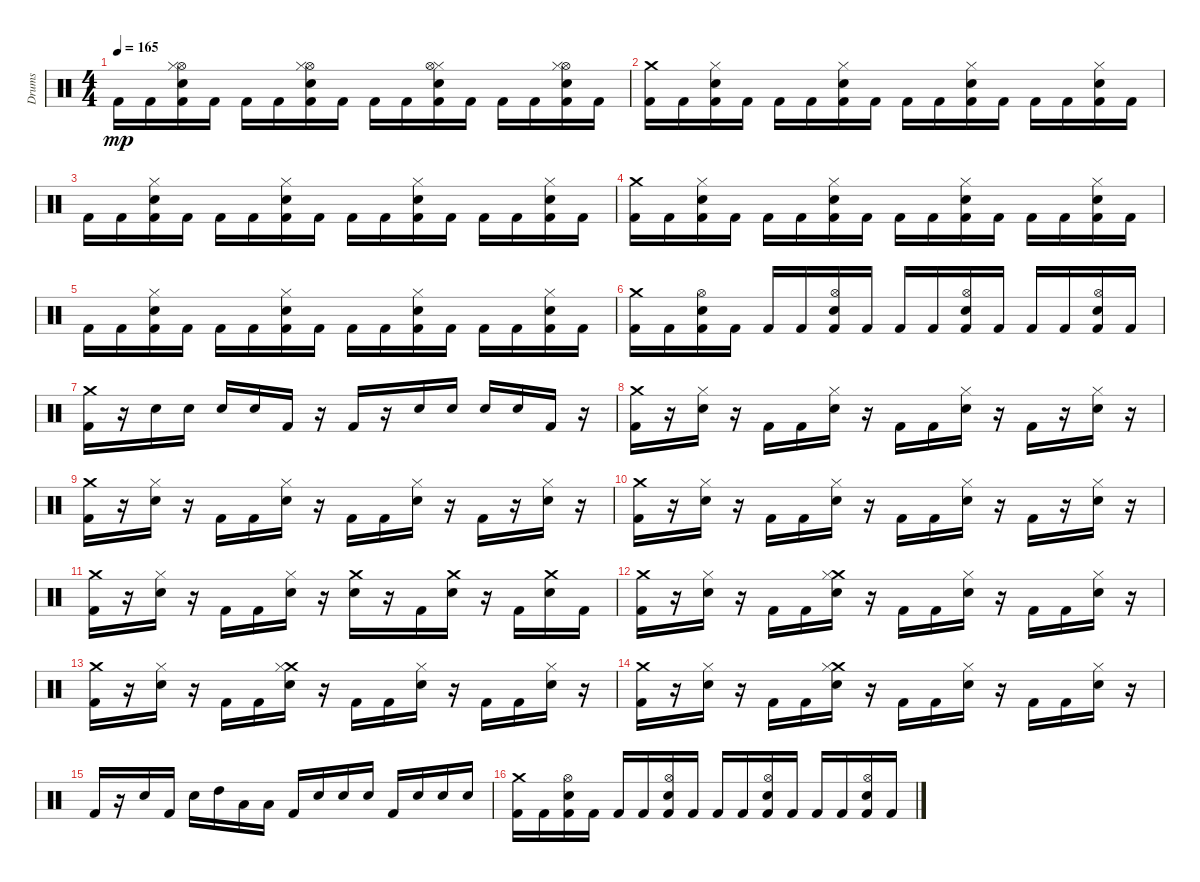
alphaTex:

\track ("Drums" "Drums") {instrument percussion}
\staff {score}
\articulation defaults
\ts (4 4)
\tempo 165
\clef neutral
\ks c "Kick (hit) 2".16{dy mp} "Kick (hit) 2".16
("Hi-Hat (open)" "Electric Snare (hit)" "Kick (hit) 2" "Hi-Hat (closed)").16 "Kick (hit) 2".16 "Kick (hit) 2".16 "Kick (hit) 2".16 ("Electric Snare (hit)" "Kick (hit) 2" "Hi-Hat (open)" "Hi-Hat (closed)").16 "Kick (hit) 2".16 "Kick (hit) 2".16 "Kick (hit) 2".16 ("Kick (hit) 2" "Electric Snare (hit)" "Hi-Hat (closed)" "Hi-Hat (open)").16 "Kick (hit) 2".16 "Kick (hit) 2".16 "Kick (hit) 2".16 ("Hi-Hat (open)" "Kick (hit) 2" "Electric Snare (hit)" "Hi-Hat (closed)").16 "Kick (hit) 2".16 |
("Crash medium (hit)" "Kick (hit) 2").16 "Kick (hit) 2".16 ("Kick (hit) 2" "Hi-Hat (closed)" "Electric Snare (hit)").16 "Kick (hit) 2".16 "Kick (hit) 2".16 "Kick (hit) 2".16 ("Kick (hit) 2" "Electric Snare (hit)" "Hi-Hat (closed)").16 "Kick (hit) 2".16 "Kick (hit) 2".16 "Kick (hit) 2".16 ("Hi-Hat (closed)" "Kick (hit) 2" "Electric Snare (hit)").16 "Kick (hit) 2".16 "Kick (hit) 2".16 "Kick (hit) 2".16 ("Hi-Hat (closed)" "Electric Snare (hit)" "Kick (hit) 2").16 "Kick (hit) 2".16 |
"Kick (hit) 2".16 "Kick (hit) 2".16 ("Hi-Hat (closed)" "Kick (hit) 2" "Electric Snare (hit)").16 "Kick (hit) 2".16 "Kick (hit) 2".16 "Kick (hit) 2".16 ("Kick (hit) 2" "Hi-Hat (closed)" "Electric Snare (hit)").16 "Kick (hit) 2".16 "Kick (hit) 2".16 "Kick (hit) 2".16 ("Hi-Hat (closed)" "Electric Snare (hit)" "Kick (hit) 2").16 "Kick (hit) 2".16 "Kick (hit) 2".16 "Kick (hit) 2".16 ("Electric Snare (hit)" "Kick (hit) 2" "Hi-Hat (closed)").16 "Kick (hit) 2".16 |
("Kick (hit) 2" "Crash medium (hit)").16 "Kick (hit) 2".16 ("Electric Snare (hit)" "Kick (hit) 2" "Hi-Hat (closed)").16 "Kick (hit) 2".16 "Kick (hit) 2".16 "Kick (hit) 2".16 ("Electric Snare (hit)" "Hi-Hat (closed)" "Kick (hit) 2").16 "Kick (hit) 2".16 "Kick (hit) 2".16 "Kick (hit) 2".16 ("Electric Snare (hit)" "Hi-Hat (closed)" "Kick (hit) 2").16 "Kick (hit) 2".16 "Kick (hit) 2".16 "Kick (hit) 2".16 ("Kick (hit) 2" "Electric Snare (hit)" "Hi-Hat (closed)").16 "Kick (hit) 2".16 |
"Kick (hit) 2".16 "Kick (hit) 2".16 ("Electric Snare (hit)" "Hi-Hat (closed)" "Kick (hit) 2").16 "Kick (hit) 2".16 "Kick (hit) 2".16 "Kick (hit) 2".16 ("Hi-Hat (closed)" "Electric Snare (hit)" "Kick (hit) 2").16 "Kick (hit) 2".16 "Kick (hit) 2".16 "Kick (hit) 2".16 ("Hi-Hat (closed)" "Kick (hit) 2" "Electric Snare (hit)").16 "Kick (hit) 2".16 "Kick (hit) 2".16 "Kick (hit) 2".16 ("Kick (hit) 2" "Hi-Hat (closed)" "Electric Snare (hit)").16 "Kick (hit) 2".16 |
("Kick (hit) 2" "Crash medium (hit)").16 "Kick (hit) 2".16 ("Kick (hit) 2" "Hi-Hat (open)" "Electric Snare (hit)").16 "Kick (hit) 2".16 "Kick (hit) 2".16 "Kick (hit) 2".16 ("Electric Snare (hit)" "Kick (hit) 2" "Hi-Hat (open)").16 "Kick (hit) 2".16 "Kick (hit) 2".16 "Kick (hit) 2".16 ("Kick (hit) 2" "Electric Snare (hit)" "Hi-Hat (open)").16 "Kick (hit) 2".16 "Kick (hit) 2".16 "Kick (hit) 2".16 ("Electric Snare (hit)" "Hi-Hat (open)" "Kick (hit) 2").16 "Kick (hit) 2".16 |
("Crash medium (hit)" "Kick (hit) 2").16 r.16 "Electric Snare (hit)".16 "Electric Snare (hit)".16 "Electric Snare (hit)".16 "Electric Snare (hit)".16 "Kick (hit) 2".16 r.16 "Kick (hit) 2".16 r.16 "Electric Snare (hit)".16 "Electric Snare (hit)".16 "Electric Snare (hit)".16 "Electric Snare (hit)".16 "Kick (hit) 2".16 r.16 |
("Crash medium (hit)" "Kick (hit) 2").16 r.16 ("Hi-Hat (closed)" "Electric Snare (hit)").16 r.16 "Kick (hit) 2".16 "Kick (hit) 2".16 ("Electric Snare (hit)" "Hi-Hat (closed)").16 r.16 "Kick (hit) 2".16 "Kick (hit) 2".16 ("Electric Snare (hit)" "Hi-Hat (closed)").16 r.16 "Kick (hit) 2".16 r.16 ("Hi-Hat (closed)" "Electric Snare (hit)").16 r.16 |
("Kick (hit) 2" "Crash medium (hit)").16 r.16 ("Hi-Hat (closed)" "Electric Snare (hit)").16 r.16 "Kick (hit) 2".16 "Kick (hit) 2".16 ("Electric Snare (hit)" "Hi-Hat (closed)").16 r.16 "Kick (hit) 2".16 "Kick (hit) 2".16 ("Hi-Hat (closed)" "Electric Snare (hit)").16 r.16 "Kick (hit) 2".16 r.16 ("Electric Snare (hit)" "Hi-Hat (closed)").16 r.16 |
("Kick (hit) 2" "Crash medium (hit)").16 r.16 ("Hi-Hat (closed)" "Electric Snare (hit)").16 r.16 "Kick (hit) 2".16 "Kick (hit) 2".16 ("Hi-Hat (closed)" "Electric Snare (hit)").16 r.16 "Kick (hit) 2".16 "Kick (hit) 2".16 ("Hi-Hat (closed)" "Electric Snare (hit)").16 r.16 "Kick (hit) 2".16 r.16 ("Electric Snare (hit)" "Hi-Hat (closed)").16 r.16 |
("Crash medium (hit)" "Kick (hit) 2").16 r.16 ("Electric Snare (hit)" "Hi-Hat (closed)").16 r.16 "Kick (hit) 2".16 "Kick (hit) 2".16 ("Hi-Hat (closed)" "Electric Snare (hit)").16 r.16 ("Electric Snare (hit)" "Crash medium (hit)").16 r.16 "Kick (hit) 2".16 ("Crash medium (hit)" "Electric Snare (hit)").16 r.16 "Kick (hit) 2".16 ("Electric Snare (hit)" "Crash medium (hit)").16 "Kick (hit) 2".16 |
("Kick (hit) 2" "Crash medium (hit)").16 r.16 ("Hi-Hat (closed)" "Electric Snare (hit)").16 r.16 "Kick (hit) 2".16 "Kick (hit) 2".16 ("Crash medium (hit)" "Electric Snare (hit)" "Hi-Hat (closed)").16 r.16 "Kick (hit) 2".16 "Kick (hit) 2".16 ("Electric Snare (hit)" "Hi-Hat (closed)").16 r.16 "Kick (hit) 2".16 "Kick (hit) 2".16 ("Electric Snare (hit)" "Hi-Hat (closed)").16 r.16 |
("Crash medium (hit)" "Kick (hit) 2").16 r.16 ("Hi-Hat (closed)" "Electric Snare (hit)").16 r.16 "Kick (hit) 2".16 "Kick (hit) 2".16 ("Crash medium (hit)" "Electric Snare (hit)" "Hi-Hat (closed)").16 r.16 "Kick (hit) 2".16 "Kick (hit) 2".16 ("Electric Snare (hit)" "Hi-Hat (closed)").16 r.16 "Kick (hit) 2".16 "Kick (hit) 2".16 ("Hi-Hat (closed)" "Electric Snare (hit)").16 r.16 |
("Crash medium (hit)" "Kick (hit) 2").16 r.16 ("Electric Snare (hit)" "Hi-Hat (closed)").16 r.16 "Kick (hit) 2".16 "Kick (hit) 2".16 ("Electric Snare (hit)" "Crash medium (hit)" "Hi-Hat (closed)").16 r.16 "Kick (hit) 2".16 "Kick (hit) 2".16 ("Electric Snare (hit)" "Hi-Hat (closed)").16 r.16 "Kick (hit) 2".16 "Kick (hit) 2".16 ("Hi-Hat (closed)" "Electric Snare (hit)").16 r.16 |
"Kick (hit) 2".16 r.16 "Electric Snare (hit)".16 "Kick (hit) 2".16 "Electric Snare (hit)".16 "High Tom (hit)".16 "Low Tom (hit)".16 "Low Floor Tom (hit)".16 "Kick (hit) 2".16 "Electric Snare (hit)".16 "Electric Snare (hit)".16 "Electric Snare (hit)".16 "Kick (hit) 2".16 "Electric Snare (hit)".16 "Electric Snare (hit)".16 "Electric Snare (hit)".16 |
("Kick (hit) 2" "Crash medium (hit)").16 "Kick (hit) 2".16 ("Electric Snare (hit)" "Hi-Hat (open)" "Kick (hit) 2").16 "Kick (hit) 2".16 "Kick (hit) 2".16 "Kick (hit) 2".16 ("Hi-Hat (open)" "Electric Snare (hit)" "Kick (hit) 2").16 "Kick (hit) 2".16 "Kick (hit) 2".16 "Kick (hit) 2".16 ("Kick (hit) 2" "Electric Snare (hit)" "Hi-Hat (open)").16 "Kick (hit) 2".16 "Kick (hit) 2".16 "Kick (hit) 2".16 ("Hi-Hat (open)" "Kick (hit) 2" "Electric Snare (hit)").16 "Kick (hit) 2".16
